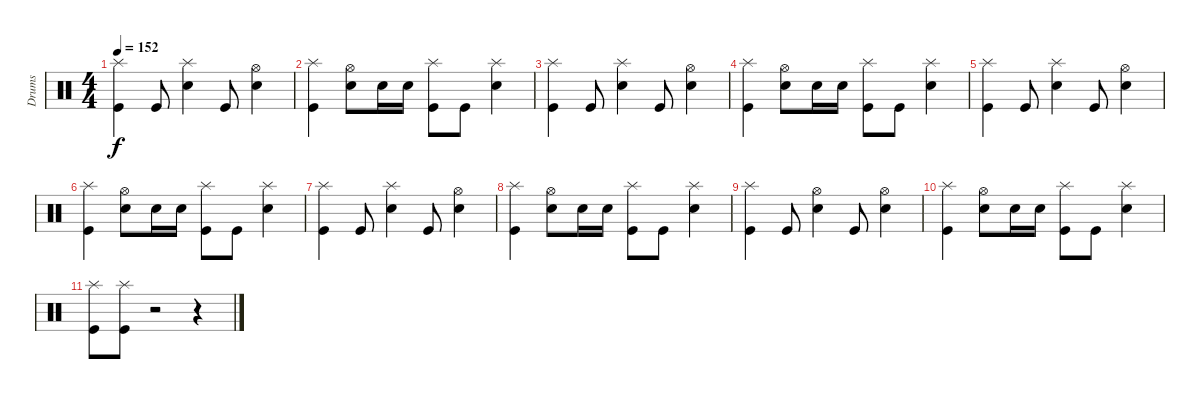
\track ("Drums" "Drums") {instrument percussion}
\staff {score}
\articulation defaults
\ts (4 4)
\tempo 152
\clef neutral
\ks c
("Splash (hit)" "Kick (hit)").4{dy f} "Kick (hit)".8 ("Splash (hit)" "Snare (hit) 2").4 "Kick (hit)".8 ("Hi-Hat (open)" "Snare (hit) 2").4 |
("Splash (hit)" "Kick (hit)").4 ("Hi-Hat (open)" "Snare (hit) 2").8 "Snare (hit) 2".16 "Snare (hit) 2".16 ("Splash (hit)" "Kick (hit)").8 "Kick (hit)".8 ("Splash (hit)" "Snare (hit) 2").4 |
("Splash (hit)" "Kick (hit)").4 "Kick (hit)".8 ("Splash (hit)" "Snare (hit) 2").4 "Kick (hit)".8 ("Hi-Hat (open)" "Snare (hit) 2").4 |
("Splash (hit)" "Kick (hit)").4 ("Hi-Hat (open)" "Snare (hit) 2").8 "Snare (hit) 2".16 "Snare (hit) 2".16 ("Splash (hit)" "Kick (hit)").8 "Kick (hit)".8 ("Splash (hit)" "Snare (hit) 2").4 |
("Splash (hit)" "Kick (hit)").4 "Kick (hit)".8 ("Splash (hit)" "Snare (hit) 2").4 "Kick (hit)".8 ("Hi-Hat (open)" "Snare (hit) 2").4 |
("Splash (hit)" "Kick (hit)").4 ("Hi-Hat (open)" "Snare (hit) 2").8 "Snare (hit) 2".16 "Snare (hit) 2".16 ("Splash (hit)" "Kick (hit)").8 "Kick (hit)".8 ("Splash (hit)" "Snare (hit) 2").4 |
("Splash (hit)" "Kick (hit)").4 "Kick (hit)".8 ("Splash (hit)" "Snare (hit) 2").4 "Kick (hit)".8 ("Hi-Hat (open)" "Snare (hit) 2").4 |
("Splash (hit)" "Kick (hit)").4 ("Hi-Hat (open)" "Snare (hit) 2").8 "Snare (hit) 2".16 "Snare (hit) 2".16 ("Splash (hit)" "Kick (hit)").8 "Kick (hit)".8 ("Splash (hit)" "Snare (hit) 2").4 |
("Splash (hit)" "Kick (hit)").4 "Kick (hit)".8 ("Hi-Hat (open)" "Snare (hit) 2").4 "Kick (hit)".8 ("Hi-Hat (open)" "Snare (hit) 2").4 |
("Splash (hit)" "Kick (hit)").4 ("Hi-Hat (open)" "Snare (hit) 2").8 "Snare (hit) 2".16 "Snare (hit) 2".16 ("Splash (hit)" "Kick (hit)").8 "Kick (hit)".8 ("Splash (hit)" "Snare (hit) 2").4 |
("Splash (hit)" "Kick (hit)").8 ("Splash (hit)" "Kick (hit)").8 r.2 r.4
